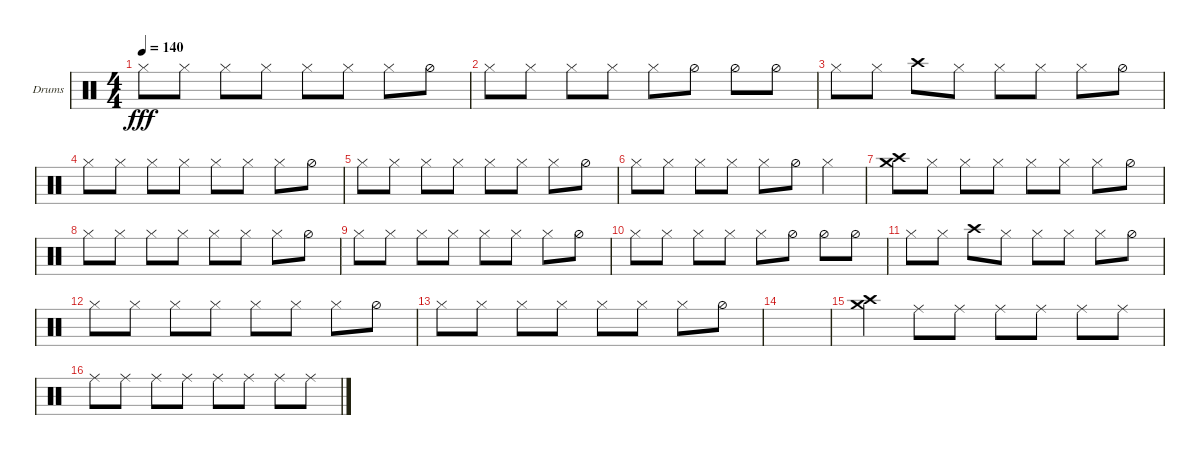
\defaultSystemsLayout 4
\bracketExtendMode groupsimilarinstruments
\firstSystemTrackNameOrientation horizontal
\otherSystemsTrackNameOrientation horizontal
\track ("Helders" "Drums") {instrument percussion}
\staff {score}
\articulation defaults
\ts (4 4)
\tempo 140
\clef neutral
\ks c "Hi-Hat (closed)".8{dy fff} "Hi-Hat (closed)".8 "Hi-Hat (closed)".8 "Hi-Hat (closed)".8 "Hi-Hat (closed)".8 "Hi-Hat (closed)".8 "Hi-Hat (closed)".8 "Hi-Hat (half)".8
|
"Hi-Hat (closed)".8 "Hi-Hat (closed)".8 "Hi-Hat (closed)".8 "Hi-Hat (closed)".8 "Hi-Hat (closed)".8 "Hi-Hat (half)".8 "Hi-Hat (half)".8 "Hi-Hat (half)".8 |
"Hi-Hat (closed)".8 "Hi-Hat (closed)".8 "Crash high (hit)".8 "Hi-Hat (closed)".8 "Hi-Hat (closed)".8 "Hi-Hat (closed)".8 "Hi-Hat (closed)".8 "Hi-Hat (half)".8 |
"Hi-Hat (closed)".8 "Hi-Hat (closed)".8 "Hi-Hat (closed)".8 "Hi-Hat (closed)".8 "Hi-Hat (closed)".8 "Hi-Hat (closed)".8 "Hi-Hat (closed)".8 "Hi-Hat (half)".8 |
"Hi-Hat (closed)".8 "Hi-Hat (closed)".8 "Hi-Hat (closed)".8 "Hi-Hat (closed)".8 "Hi-Hat (closed)".8 "Hi-Hat (closed)".8 "Hi-Hat (closed)".8 "Hi-Hat (half)".8 |
"Hi-Hat (closed)".8 "Hi-Hat (closed)".8 "Hi-Hat (closed)".8 "Hi-Hat (closed)".8 "Hi-Hat (closed)".8 "Hi-Hat (half)".8 "Hi-Hat (closed)".4 |
("Crash high (hit)" "Crash medium (hit)").8 "Hi-Hat (closed)".8 "Hi-Hat (closed)".8 "Hi-Hat (closed)".8 "Hi-Hat (closed)".8 "Hi-Hat (closed)".8 "Hi-Hat (closed)".8 "Hi-Hat (half)".8 |
"Hi-Hat (closed)".8 "Hi-Hat (closed)".8 "Hi-Hat (closed)".8 "Hi-Hat (closed)".8 "Hi-Hat (closed)".8 "Hi-Hat (closed)".8 "Hi-Hat (closed)".8 "Hi-Hat (half)".8 |
"Hi-Hat (closed)".8 "Hi-Hat (closed)".8 "Hi-Hat (closed)".8 "Hi-Hat (closed)".8 "Hi-Hat (closed)".8 "Hi-Hat (closed)".8 "Hi-Hat (closed)".8 "Hi-Hat (half)".8 |
"Hi-Hat (closed)".8 "Hi-Hat (closed)".8 "Hi-Hat (closed)".8 "Hi-Hat (closed)".8 "Hi-Hat (closed)".8 "Hi-Hat (half)".8 "Hi-Hat (half)".8 "Hi-Hat (half)".8 |
"Hi-Hat (closed)".8 "Hi-Hat (closed)".8 "Crash high (hit)".8 "Hi-Hat (closed)".8 "Hi-Hat (closed)".8 "Hi-Hat (closed)".8 "Hi-Hat (closed)".8 "Hi-Hat (half)".8 |
"Hi-Hat (closed)".8 "Hi-Hat (closed)".8 "Hi-Hat (closed)".8 "Hi-Hat (closed)".8 "Hi-Hat (closed)".8 "Hi-Hat (closed)".8 "Hi-Hat (closed)".8 "Hi-Hat (half)".8 |
"Hi-Hat (closed)".8 "Hi-Hat (closed)".8 "Hi-Hat (closed)".8 "Hi-Hat (closed)".8 "Hi-Hat (closed)".8 "Hi-Hat (closed)".8 "Hi-Hat (closed)".8 "Hi-Hat (half)".8 |
|
("Crash high (hit)" "Crash medium (hit)").4 "Ride (middle)".8 "Ride (middle)".8 "Ride (middle)".8 "Ride (middle)".8 "Ride (middle)".8 "Ride (middle)".8 |
"Ride (middle)".8 "Ride (middle)".8 "Ride (middle)".8 "Ride (middle)".8 "Ride (middle)".8 "Ride (middle)".8 "Ride (middle)".8 "Ride (middle)".8
